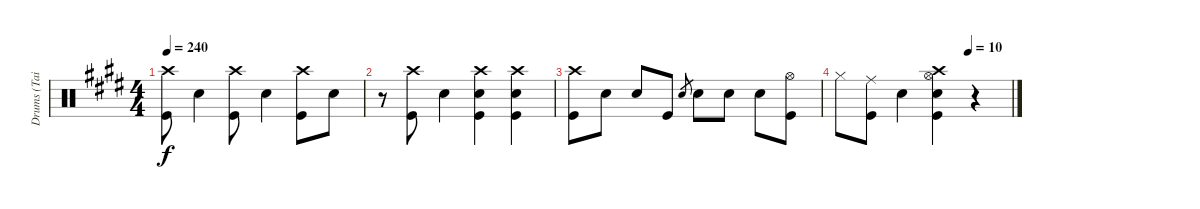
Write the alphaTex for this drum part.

\track ("Drums (Tainaka Ritsu)" "Drums (Tai") {instrument percussion}
\staff {score}
\articulation defaults
\ts (4 4)
\tempo 240
\clef neutral
\ks e
("Crash high (hit)" "Kick (hit)").8{dy f} "Snare (hit) 2".4 ("Crash high (hit)" "Kick (hit)").8 "Snare (hit) 2".4 ("Crash high (hit)" "Kick (hit)").8 "Snare (hit) 2".8 |
r.8 ("Crash high (hit)" "Kick (hit)").8 "Snare (hit) 2".4 ("Crash high (hit)" "Snare (hit) 2" "Kick (hit)").4 ("Crash high (hit)" "Snare (hit) 2" "Kick (hit)").4 |
("Crash high (hit)" "Kick (hit)").8 "Snare (hit) 2".8 "Snare (hit) 2".8 "Kick (hit)".8 "Snare (hit) 2".8{gr} "Snare (hit) 2".8 "Snare (hit) 2".8 "Snare (hit) 2".8 ("Hi-Hat (open)" "Kick (hit)").8 |
\tempo (10 0.75)
"Hi-Hat (closed)".8 ("Ride (middle)" "Kick (hit)").8 "Snare (hit) 2".4 ("Crash high (hit)" "Hi-Hat (open)" "Snare (hit) 2" "Kick (hit)").4 r.4
